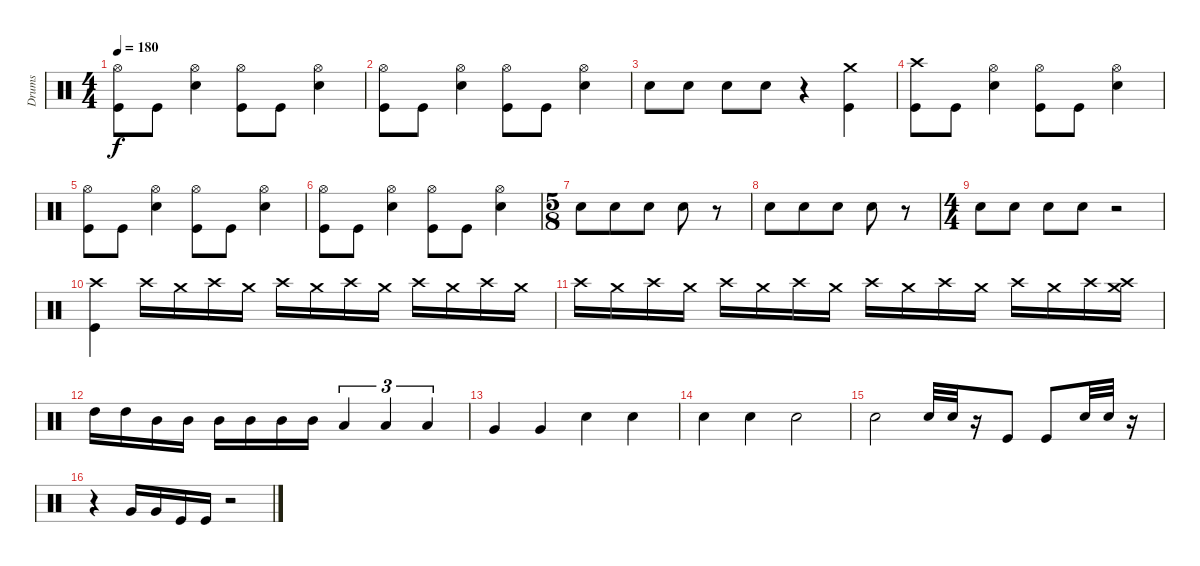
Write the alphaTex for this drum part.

\track ("Drums" "Drums") {instrument percussion}
\staff {score}
\articulation defaults
\ts (4 4)
\tempo 180
\clef neutral
\ks c
("Hi-Hat (open)" "Kick (hit)").8{dy f} "Kick (hit)".8 ("Hi-Hat (open)" "Snare (hit) 2").4 ("Hi-Hat (open)" "Kick (hit)").8 "Kick (hit)".8 ("Hi-Hat (open)" "Snare (hit) 2").4 |
("Hi-Hat (open)" "Kick (hit)").8 "Kick (hit)".8 ("Hi-Hat (open)" "Snare (hit) 2").4 ("Hi-Hat (open)" "Kick (hit)").8 "Kick (hit)".8 ("Hi-Hat (open)" "Snare (hit) 2").4 |
"Snare (hit) 2".8 "Snare (hit) 2".8 "Snare (hit) 2".8 "Snare (hit) 2".8 r.4 ("Crash medium (hit)" "Kick (hit)").4 |
("Crash high (hit)" "Kick (hit)").8 "Kick (hit)".8 ("Hi-Hat (open)" "Snare (hit) 2").4 ("Hi-Hat (open)" "Kick (hit)").8 "Kick (hit)".8 ("Hi-Hat (open)" "Snare (hit) 2").4 |
("Hi-Hat (open)" "Kick (hit)").8 "Kick (hit)".8 ("Hi-Hat (open)" "Snare (hit) 2").4 ("Hi-Hat (open)" "Kick (hit)").8 "Kick (hit)".8 ("Hi-Hat (open)" "Snare (hit) 2").4 |
("Hi-Hat (open)" "Kick (hit)").8 "Kick (hit)".8 ("Hi-Hat (open)" "Snare (hit) 2").4 ("Hi-Hat (open)" "Kick (hit)").8 "Kick (hit)".8 ("Hi-Hat (open)" "Snare (hit) 2").4 |
\ts (5 8)
"Snare (hit) 2".8 "Snare (hit) 2".8 "Snare (hit) 2".8 "Snare (hit) 2".8 r.8 |
"Snare (hit) 2".8 "Snare (hit) 2".8 "Snare (hit) 2".8 "Snare (hit) 2".8 r.8 |
\ts (4 4)
"Snare (hit) 2".8 "Snare (hit) 2".8 "Snare (hit) 2".8 "Snare (hit) 2".8 r.2 |
("Crash high (hit)" "Kick (hit)").4 "Crash high (hit)".16 "Crash medium (hit)".16 "Crash high (hit)".16 "Crash medium (hit)".16 "Crash high (hit)".16 "Crash medium (hit)".16 "Crash high (hit)".16 "Crash medium (hit)".16 "Crash high (hit)".16 "Crash medium (hit)".16 "Crash high (hit)".16 "Crash medium (hit)".16 |
"Crash high (hit)".16 "Crash medium (hit)".16 "Crash high (hit)".16 "Crash medium (hit)".16 "Crash high (hit)".16 "Crash medium (hit)".16 "Crash high (hit)".16 "Crash medium (hit)".16 "Crash high (hit)".16 "Crash medium (hit)".16 "Crash high (hit)".16 "Crash medium (hit)".16 "Crash high (hit)".16 "Crash medium (hit)".16 "Crash high (hit)".16 ("Crash medium (hit)" "Crash high (hit)").16 |
"High Tom (hit)".16 "High Tom (hit)".16 "Mid Tom (hit)".16 "Mid Tom (hit)".16 "Mid Tom (hit)".16 "Mid Tom (hit)".16 "Mid Tom (hit)".16 "Mid Tom (hit)".16 "Low Tom (hit)".4{tu (3 2)} "Low Tom (hit)".4{tu (3 2)} "Low Tom (hit)".4{tu (3 2)} |
"Very Low Tom (hit)".4 "Very Low Tom (hit)".4 "Snare (hit) 2".4 "Snare (hit) 2".4 |
"Snare (hit) 2".4 "Snare (hit) 2".4 "Snare (hit) 2".2 |
"Snare (hit) 2".2 "Snare (hit) 2".32 "Snare (hit) 2".32 r.16 "Kick (hit)".8 "Kick (hit)".8 "Snare (hit) 2".32 "Snare (hit) 2".32 r.16 |
r.4 "Very Low Tom (hit)".16 "Very Low Tom (hit)".16 "Kick (hit)".16 "Kick (hit)".16 r.2
